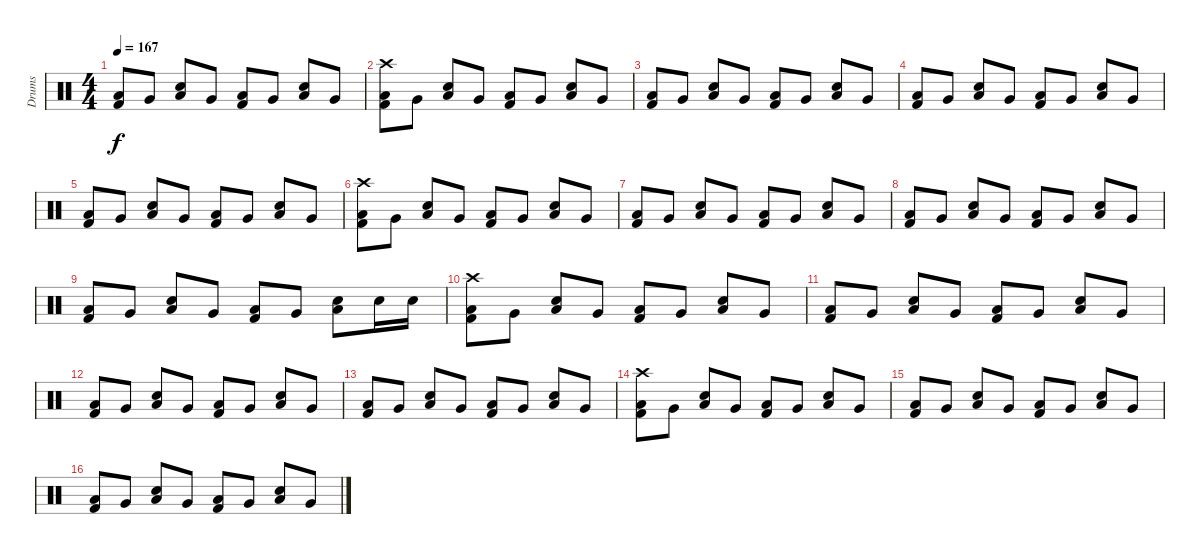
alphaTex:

\track ("Drums" "Drums") {instrument percussion}
\staff {score}
\articulation defaults
\ts (4 4)
\tempo 167
\clef neutral
\ks c
("Low Floor Tom (hit)" "Kick (hit) 2").8{dy f} "Very Low Tom (hit)".8 ("Low Floor Tom (hit)" "Snare (hit) 2").8 "Very Low Tom (hit)".8 ("Low Floor Tom (hit)" "Kick (hit) 2").8 "Very Low Tom (hit)".8 ("Low Floor Tom (hit)" "Snare (hit) 2").8 "Very Low Tom (hit)".8 |
("Crash high (hit)" "Low Floor Tom (hit)" "Kick (hit) 2").8 "Very Low Tom (hit)".8 ("Low Floor Tom (hit)" "Snare (hit) 2").8 "Very Low Tom (hit)".8 ("Low Floor Tom (hit)" "Kick (hit) 2").8 "Very Low Tom (hit)".8 ("Low Floor Tom (hit)" "Snare (hit) 2").8 "Very Low Tom (hit)".8 |
("Low Floor Tom (hit)" "Kick (hit) 2").8 "Very Low Tom (hit)".8 ("Low Floor Tom (hit)" "Snare (hit) 2").8 "Very Low Tom (hit)".8 ("Low Floor Tom (hit)" "Kick (hit) 2").8 "Very Low Tom (hit)".8 ("Low Floor Tom (hit)" "Snare (hit) 2").8 "Very Low Tom (hit)".8 |
("Low Floor Tom (hit)" "Kick (hit) 2").8 "Very Low Tom (hit)".8 ("Low Floor Tom (hit)" "Snare (hit) 2").8 "Very Low Tom (hit)".8 ("Low Floor Tom (hit)" "Kick (hit) 2").8 "Very Low Tom (hit)".8 ("Low Floor Tom (hit)" "Snare (hit) 2").8 "Very Low Tom (hit)".8 |
("Low Floor Tom (hit)" "Kick (hit) 2").8 "Very Low Tom (hit)".8 ("Low Floor Tom (hit)" "Snare (hit) 2").8 "Very Low Tom (hit)".8 ("Low Floor Tom (hit)" "Kick (hit) 2").8 "Very Low Tom (hit)".8 ("Low Floor Tom (hit)" "Snare (hit) 2").8 "Very Low Tom (hit)".8 |
("Crash high (hit)" "Low Floor Tom (hit)" "Kick (hit) 2").8 "Very Low Tom (hit)".8 ("Low Floor Tom (hit)" "Snare (hit) 2").8 "Very Low Tom (hit)".8 ("Low Floor Tom (hit)" "Kick (hit) 2").8 "Very Low Tom (hit)".8 ("Low Floor Tom (hit)" "Snare (hit) 2").8 "Very Low Tom (hit)".8 |
("Low Floor Tom (hit)" "Kick (hit) 2").8 "Very Low Tom (hit)".8 ("Low Floor Tom (hit)" "Snare (hit) 2").8 "Very Low Tom (hit)".8 ("Low Floor Tom (hit)" "Kick (hit) 2").8 "Very Low Tom (hit)".8 ("Low Floor Tom (hit)" "Snare (hit) 2").8 "Very Low Tom (hit)".8 |
("Low Floor Tom (hit)" "Kick (hit) 2").8 "Very Low Tom (hit)".8 ("Low Floor Tom (hit)" "Snare (hit) 2").8 "Very Low Tom (hit)".8 ("Low Floor Tom (hit)" "Kick (hit) 2").8 "Very Low Tom (hit)".8 ("Low Floor Tom (hit)" "Snare (hit) 2").8 "Very Low Tom (hit)".8 |
("Low Floor Tom (hit)" "Kick (hit) 2").8 "Very Low Tom (hit)".8 ("Low Floor Tom (hit)" "Snare (hit) 2").8 "Very Low Tom (hit)".8 ("Low Floor Tom (hit)" "Kick (hit) 2").8 "Very Low Tom (hit)".8 ("Low Floor Tom (hit)" "Snare (hit) 2").8 "Snare (hit) 2".16 "Snare (hit) 2".16 |
("Crash high (hit)" "Low Floor Tom (hit)" "Kick (hit) 2").8 "Very Low Tom (hit)".8 ("Low Floor Tom (hit)" "Snare (hit) 2").8 "Very Low Tom (hit)".8 ("Low Floor Tom (hit)" "Kick (hit) 2").8 "Very Low Tom (hit)".8 ("Low Floor Tom (hit)" "Snare (hit) 2").8 "Very Low Tom (hit)".8 |
("Low Floor Tom (hit)" "Kick (hit) 2").8 "Very Low Tom (hit)".8 ("Low Floor Tom (hit)" "Snare (hit) 2").8 "Very Low Tom (hit)".8 ("Low Floor Tom (hit)" "Kick (hit) 2").8 "Very Low Tom (hit)".8 ("Low Floor Tom (hit)" "Snare (hit) 2").8 "Very Low Tom (hit)".8 |
("Low Floor Tom (hit)" "Kick (hit) 2").8 "Very Low Tom (hit)".8 ("Low Floor Tom (hit)" "Snare (hit) 2").8 "Very Low Tom (hit)".8 ("Low Floor Tom (hit)" "Kick (hit) 2").8 "Very Low Tom (hit)".8 ("Low Floor Tom (hit)" "Snare (hit) 2").8 "Very Low Tom (hit)".8 |
("Low Floor Tom (hit)" "Kick (hit) 2").8 "Very Low Tom (hit)".8 ("Low Floor Tom (hit)" "Snare (hit) 2").8 "Very Low Tom (hit)".8 ("Low Floor Tom (hit)" "Kick (hit) 2").8 "Very Low Tom (hit)".8 ("Low Floor Tom (hit)" "Snare (hit) 2").8 "Very Low Tom (hit)".8 |
("Crash high (hit)" "Low Floor Tom (hit)" "Kick (hit) 2").8 "Very Low Tom (hit)".8 ("Low Floor Tom (hit)" "Snare (hit) 2").8 "Very Low Tom (hit)".8 ("Low Floor Tom (hit)" "Kick (hit) 2").8 "Very Low Tom (hit)".8 ("Low Floor Tom (hit)" "Snare (hit) 2").8 "Very Low Tom (hit)".8 |
("Low Floor Tom (hit)" "Kick (hit) 2").8 "Very Low Tom (hit)".8 ("Low Floor Tom (hit)" "Snare (hit) 2").8 "Very Low Tom (hit)".8 ("Low Floor Tom (hit)" "Kick (hit) 2").8 "Very Low Tom (hit)".8 ("Low Floor Tom (hit)" "Snare (hit) 2").8 "Very Low Tom (hit)".8 |
("Low Floor Tom (hit)" "Kick (hit) 2").8 "Very Low Tom (hit)".8 ("Low Floor Tom (hit)" "Snare (hit) 2").8 "Very Low Tom (hit)".8 ("Low Floor Tom (hit)" "Kick (hit) 2").8 "Very Low Tom (hit)".8 ("Low Floor Tom (hit)" "Snare (hit) 2").8 "Very Low Tom (hit)".8
